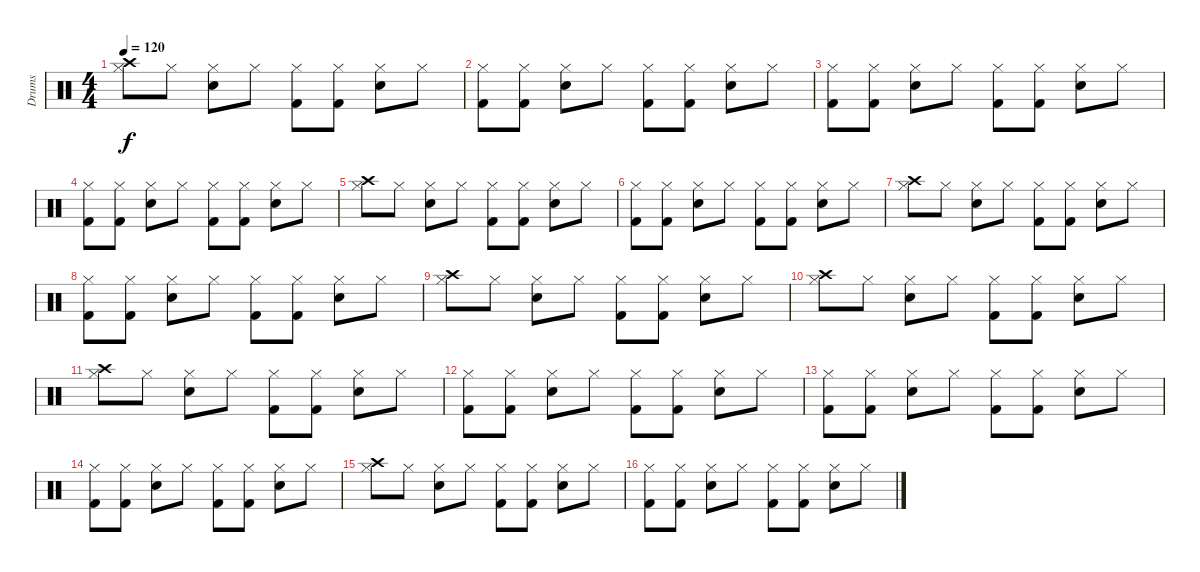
\track ("Drums" "Drums") {instrument percussion}
\staff {score}
\articulation defaults
\ts (4 4)
\tempo 120
\clef neutral
\ks c
("Crash high (hit)" "Hi-Hat (closed)").8{dy f} "Hi-Hat (closed)".8 ("Hi-Hat (closed)" "Snare (hit) 2").8 "Hi-Hat (closed)".8 ("Hi-Hat (closed)" "Kick (hit) 2").8 ("Hi-Hat (closed)" "Kick (hit) 2").8 ("Hi-Hat (closed)" "Snare (hit) 2").8 "Hi-Hat (closed)".8 |
("Hi-Hat (closed)" "Kick (hit) 2").8 ("Hi-Hat (closed)" "Kick (hit) 2").8 ("Hi-Hat (closed)" "Snare (hit) 2").8 "Hi-Hat (closed)".8 ("Hi-Hat (closed)" "Kick (hit) 2").8 ("Hi-Hat (closed)" "Kick (hit) 2").8 ("Hi-Hat (closed)" "Snare (hit) 2").8 "Hi-Hat (closed)".8 |
("Hi-Hat (closed)" "Kick (hit) 2").8 ("Hi-Hat (closed)" "Kick (hit) 2").8 ("Hi-Hat (closed)" "Snare (hit) 2").8 "Hi-Hat (closed)".8 ("Hi-Hat (closed)" "Kick (hit) 2").8 ("Hi-Hat (closed)" "Kick (hit) 2").8 ("Hi-Hat (closed)" "Snare (hit) 2").8 "Hi-Hat (closed)".8 |
("Hi-Hat (closed)" "Kick (hit) 2").8 ("Hi-Hat (closed)" "Kick (hit) 2").8 ("Hi-Hat (closed)" "Snare (hit) 2").8 "Hi-Hat (closed)".8 ("Hi-Hat (closed)" "Kick (hit) 2").8 ("Hi-Hat (closed)" "Kick (hit) 2").8 ("Hi-Hat (closed)" "Snare (hit) 2").8 "Hi-Hat (closed)".8 |
("Crash high (hit)" "Hi-Hat (closed)").8 "Hi-Hat (closed)".8 ("Hi-Hat (closed)" "Snare (hit) 2").8 "Hi-Hat (closed)".8 ("Hi-Hat (closed)" "Kick (hit) 2").8 ("Hi-Hat (closed)" "Kick (hit) 2").8 ("Hi-Hat (closed)" "Snare (hit) 2").8 "Hi-Hat (closed)".8 |
("Hi-Hat (closed)" "Kick (hit) 2").8 ("Hi-Hat (closed)" "Kick (hit) 2").8 ("Hi-Hat (closed)" "Snare (hit) 2").8 "Hi-Hat (closed)".8 ("Hi-Hat (closed)" "Kick (hit) 2").8 ("Hi-Hat (closed)" "Kick (hit) 2").8 ("Hi-Hat (closed)" "Snare (hit) 2").8 "Hi-Hat (closed)".8 |
("Crash high (hit)" "Hi-Hat (closed)").8 "Hi-Hat (closed)".8 ("Hi-Hat (closed)" "Snare (hit) 2").8 "Hi-Hat (closed)".8 ("Hi-Hat (closed)" "Kick (hit) 2").8 ("Hi-Hat (closed)" "Kick (hit) 2").8 ("Hi-Hat (closed)" "Snare (hit) 2").8 "Hi-Hat (closed)".8 |
("Hi-Hat (closed)" "Kick (hit) 2").8 ("Hi-Hat (closed)" "Kick (hit) 2").8 ("Hi-Hat (closed)" "Snare (hit) 2").8 "Hi-Hat (closed)".8 ("Hi-Hat (closed)" "Kick (hit) 2").8 ("Hi-Hat (closed)" "Kick (hit) 2").8 ("Hi-Hat (closed)" "Snare (hit) 2").8 "Hi-Hat (closed)".8 |
("Crash high (hit)" "Hi-Hat (closed)").8 "Hi-Hat (closed)".8 ("Hi-Hat (closed)" "Snare (hit) 2").8 "Hi-Hat (closed)".8 ("Hi-Hat (closed)" "Kick (hit) 2").8 ("Hi-Hat (closed)" "Kick (hit) 2").8 ("Hi-Hat (closed)" "Snare (hit) 2").8 "Hi-Hat (closed)".8 |
("Crash high (hit)" "Hi-Hat (closed)").8 "Hi-Hat (closed)".8 ("Hi-Hat (closed)" "Snare (hit) 2").8 "Hi-Hat (closed)".8 ("Hi-Hat (closed)" "Kick (hit) 2").8 ("Hi-Hat (closed)" "Kick (hit) 2").8 ("Hi-Hat (closed)" "Snare (hit) 2").8 "Hi-Hat (closed)".8 |
("Crash high (hit)" "Hi-Hat (closed)").8 "Hi-Hat (closed)".8 ("Hi-Hat (closed)" "Snare (hit) 2").8 "Hi-Hat (closed)".8 ("Hi-Hat (closed)" "Kick (hit) 2").8 ("Hi-Hat (closed)" "Kick (hit) 2").8 ("Hi-Hat (closed)" "Snare (hit) 2").8 "Hi-Hat (closed)".8 |
("Hi-Hat (closed)" "Kick (hit) 2").8 ("Hi-Hat (closed)" "Kick (hit) 2").8 ("Hi-Hat (closed)" "Snare (hit) 2").8 "Hi-Hat (closed)".8 ("Hi-Hat (closed)" "Kick (hit) 2").8 ("Hi-Hat (closed)" "Kick (hit) 2").8 ("Hi-Hat (closed)" "Snare (hit) 2").8 "Hi-Hat (closed)".8 |
("Hi-Hat (closed)" "Kick (hit) 2").8 ("Hi-Hat (closed)" "Kick (hit) 2").8 ("Hi-Hat (closed)" "Snare (hit) 2").8 "Hi-Hat (closed)".8 ("Hi-Hat (closed)" "Kick (hit) 2").8 ("Hi-Hat (closed)" "Kick (hit) 2").8 ("Hi-Hat (closed)" "Snare (hit) 2").8 "Hi-Hat (closed)".8 |
("Hi-Hat (closed)" "Kick (hit) 2").8 ("Hi-Hat (closed)" "Kick (hit) 2").8 ("Hi-Hat (closed)" "Snare (hit) 2").8 "Hi-Hat (closed)".8 ("Hi-Hat (closed)" "Kick (hit) 2").8 ("Hi-Hat (closed)" "Kick (hit) 2").8 ("Hi-Hat (closed)" "Snare (hit) 2").8 "Hi-Hat (closed)".8 |
("Crash high (hit)" "Hi-Hat (closed)").8 "Hi-Hat (closed)".8 ("Hi-Hat (closed)" "Snare (hit) 2").8 "Hi-Hat (closed)".8 ("Hi-Hat (closed)" "Kick (hit) 2").8 ("Hi-Hat (closed)" "Kick (hit) 2").8 ("Hi-Hat (closed)" "Snare (hit) 2").8 "Hi-Hat (closed)".8 |
("Hi-Hat (closed)" "Kick (hit) 2").8 ("Hi-Hat (closed)" "Kick (hit) 2").8 ("Hi-Hat (closed)" "Snare (hit) 2").8 "Hi-Hat (closed)".8 ("Hi-Hat (closed)" "Kick (hit) 2").8 ("Hi-Hat (closed)" "Kick (hit) 2").8 ("Hi-Hat (closed)" "Snare (hit) 2").8 "Hi-Hat (closed)".8
